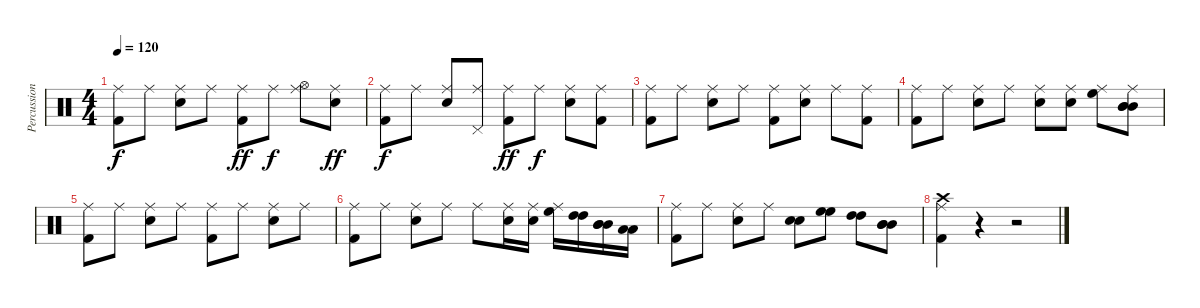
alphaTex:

\track ("Percussioni" "Percussion") {instrument percussion}
\staff {score}
\articulation defaults
\ts (4 4)
\tempo 120
\clef neutral
\ks c
("Kick (hit) 2" "Ride (middle)").8{dy f} "Ride (middle)".8 ("Electric Snare (hit)" "Ride (middle)").8 "Ride (middle)".8 ("Kick (hit) 2" "Ride (middle)").8{dy ff} "Ride (middle)".8{dy f} ("Hi-Hat (open)" "Ride (middle)").8 ("Electric Snare (hit)" "Ride (middle)").8{dy ff} |
("Kick (hit) 2" "Ride (middle)").8{dy f} "Ride (middle)".8 ("Electric Snare (hit)" "Ride (middle)").8 ("Pedal Hi-Hat (hit)" "Ride (middle)").8 ("Kick (hit) 2" "Ride (middle)").8{dy ff} "Ride (middle)".8{dy f} ("Electric Snare (hit)" "Ride (middle)").8 ("Kick (hit) 2" "Ride (middle)").8 |
("Kick (hit) 2" "Ride (middle)").8 "Ride (middle)".8 ("Electric Snare (hit)" "Ride (middle)").8 "Ride (middle)".8 ("Kick (hit) 2" "Ride (middle)").8 ("Electric Snare (hit)" "Ride (middle)").8 "Ride (middle)".8 ("Kick (hit) 2" "Ride (middle)").8 |
("Kick (hit) 2" "Ride (middle)").8 "Ride (middle)".8 ("Electric Snare (hit)" "Ride (middle)").8 "Ride (middle)".8 ("Electric Snare (hit)" "Ride (middle)").8 ("Electric Snare (hit)" "Ride (middle)").8 ("High Floor Tom (hit)" "Ride (middle)").8 ("Mid Tom (hit)" "Mid Tom (hit)" "Mid Tom (hit)" "Ride (middle)").8 |
("Kick (hit) 2" "Ride (middle)").8 "Ride (middle)".8 ("Electric Snare (hit)" "Ride (middle)").8 "Ride (middle)".8 ("Kick (hit) 2" "Ride (middle)").8 "Ride (middle)".8 ("Electric Snare (hit)" "Ride (middle)").8 "Ride (middle)".8 |
("Kick (hit) 2" "Ride (middle)").8 "Ride (middle)".8 ("Electric Snare (hit)" "Ride (middle)").8 "Ride (middle)".8 "Ride (middle)".8 ("Electric Snare (hit)" "Ride (middle)").16 ("Electric Snare (hit)" "Ride (middle)").16 ("High Floor Tom (hit)" "Ride (middle)").16 ("High Tom (hit)" "High Tom (hit)").16 ("Mid Tom (hit)" "Mid Tom (hit)" "Mid Tom (hit)").16 ("Low Tom (hit)" "Low Tom (hit)").16 |
("Kick (hit) 2" "Ride (middle)").8 "Ride (middle)".8 ("Electric Snare (hit)" "Ride (middle)").8 "Ride (middle)".8 ("Electric Snare (hit)" "Electric Snare (hit)").8{bd 120} ("High Floor Tom (hit)" "High Floor Tom (hit)").8{bd 120} ("High Tom (hit)" "High Tom (hit)").8{bd 120} ("Mid Tom (hit)" "Mid Tom (hit)" "Mid Tom (hit)").8{bd 120} |
("Crash high (hit)" "Kick (hit) 2" "Ride (middle)").4 r.4 r.2
